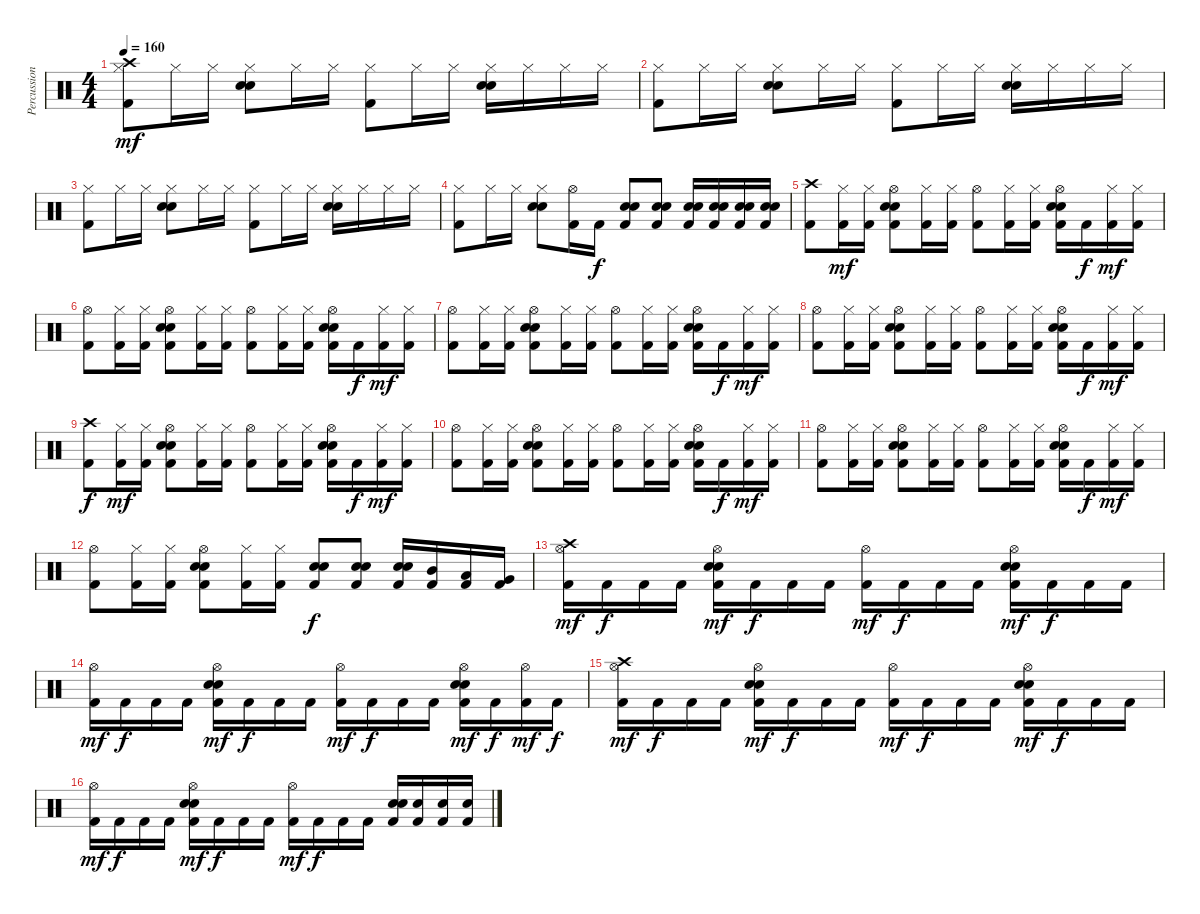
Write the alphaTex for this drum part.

\track ("Percussion" "Percussion") {instrument percussion}
\staff {score}
\articulation defaults
\ts (4 4)
\tempo 160
\clef neutral
\ks c
("Crash high (hit)" "Hi-Hat (closed)" "Kick (hit) 2").8{dy mf} "Hi-Hat (closed)".16 "Hi-Hat (closed)".16 ("Hi-Hat (closed)" "Electric Snare (hit)" "Snare (hit) 2").8 "Hi-Hat (closed)".16 "Hi-Hat (closed)".16 ("Hi-Hat (closed)" "Kick (hit) 2").8 "Hi-Hat (closed)".16 "Hi-Hat (closed)".16 ("Hi-Hat (closed)" "Electric Snare (hit)" "Snare (hit) 2").16 "Hi-Hat (closed)".16 "Hi-Hat (closed)".16 "Hi-Hat (closed)".16 |
("Hi-Hat (closed)" "Kick (hit) 2").8 "Hi-Hat (closed)".16 "Hi-Hat (closed)".16 ("Hi-Hat (closed)" "Electric Snare (hit)" "Snare (hit) 2").8 "Hi-Hat (closed)".16 "Hi-Hat (closed)".16 ("Hi-Hat (closed)" "Kick (hit) 2").8 "Hi-Hat (closed)".16 "Hi-Hat (closed)".16 ("Hi-Hat (closed)" "Electric Snare (hit)" "Snare (hit) 2").16 "Hi-Hat (closed)".16 "Hi-Hat (closed)".16 "Hi-Hat (closed)".16 |
("Hi-Hat (closed)" "Kick (hit) 2").8 "Hi-Hat (closed)".16 "Hi-Hat (closed)".16 ("Hi-Hat (closed)" "Electric Snare (hit)" "Snare (hit) 2").8 "Hi-Hat (closed)".16 "Hi-Hat (closed)".16 ("Hi-Hat (closed)" "Kick (hit) 2").8 "Hi-Hat (closed)".16 "Hi-Hat (closed)".16 ("Hi-Hat (closed)" "Electric Snare (hit)" "Snare (hit) 2").16 "Hi-Hat (closed)".16 "Hi-Hat (closed)".16 "Hi-Hat (closed)".16 |
("Hi-Hat (closed)" "Kick (hit) 2").8 "Hi-Hat (closed)".16 "Hi-Hat (closed)".16 ("Hi-Hat (closed)" "Electric Snare (hit)" "Snare (hit) 2").8 ("Hi-Hat (open)" "Kick (hit) 2").16 "Kick (hit) 2".16{dy f} ("Electric Snare (hit)" "Snare (hit) 2" "Kick (hit) 2").8 ("Electric Snare (hit)" "Snare (hit) 2" "Kick (hit) 2").8 ("Electric Snare (hit)" "Snare (hit) 2" "Kick (hit) 2").16 ("Electric Snare (hit)" "Snare (hit) 2" "Kick (hit) 2").16 ("Electric Snare (hit)" "Snare (hit) 2" "Kick (hit) 2").16 ("Electric Snare (hit)" "Snare (hit) 2" "Kick (hit) 2").16 |
\section ("" "")
("Crash high (hit)" "Kick (hit) 2").8 ("Hi-Hat (closed)" "Kick (hit) 2").16{dy mf} ("Hi-Hat (closed)" "Kick (hit) 2").16 ("Hi-Hat (open)" "Electric Snare (hit)" "Snare (hit) 2" "Kick (hit) 2").8 ("Hi-Hat (closed)" "Kick (hit) 2").16 ("Hi-Hat (closed)" "Kick (hit) 2").16 ("Hi-Hat (open)" "Kick (hit) 2").8 ("Hi-Hat (closed)" "Kick (hit) 2").16 ("Hi-Hat (closed)" "Kick (hit) 2").16 ("Hi-Hat (open)" "Electric Snare (hit)" "Snare (hit) 2" "Kick (hit) 2").16 "Kick (hit) 2".16{dy f} ("Hi-Hat (closed)" "Kick (hit) 2").16{dy mf} ("Hi-Hat (closed)" "Kick (hit) 2").16 |
("Hi-Hat (open)" "Kick (hit) 2").8 ("Hi-Hat (closed)" "Kick (hit) 2").16 ("Hi-Hat (closed)" "Kick (hit) 2").16 ("Hi-Hat (open)" "Electric Snare (hit)" "Snare (hit) 2" "Kick (hit) 2").8 ("Hi-Hat (closed)" "Kick (hit) 2").16 ("Hi-Hat (closed)" "Kick (hit) 2").16 ("Hi-Hat (open)" "Kick (hit) 2").8 ("Hi-Hat (closed)" "Kick (hit) 2").16 ("Hi-Hat (closed)" "Kick (hit) 2").16 ("Hi-Hat (open)" "Electric Snare (hit)" "Snare (hit) 2" "Kick (hit) 2").16 "Kick (hit) 2".16{dy f} ("Hi-Hat (closed)" "Kick (hit) 2").16{dy mf} ("Hi-Hat (closed)" "Kick (hit) 2").16 |
("Hi-Hat (open)" "Kick (hit) 2").8 ("Hi-Hat (closed)" "Kick (hit) 2").16 ("Hi-Hat (closed)" "Kick (hit) 2").16 ("Hi-Hat (open)" "Electric Snare (hit)" "Snare (hit) 2" "Kick (hit) 2").8 ("Hi-Hat (closed)" "Kick (hit) 2").16 ("Hi-Hat (closed)" "Kick (hit) 2").16 ("Hi-Hat (open)" "Kick (hit) 2").8 ("Hi-Hat (closed)" "Kick (hit) 2").16 ("Hi-Hat (closed)" "Kick (hit) 2").16 ("Hi-Hat (open)" "Electric Snare (hit)" "Snare (hit) 2" "Kick (hit) 2").16 "Kick (hit) 2".16{dy f} ("Hi-Hat (closed)" "Kick (hit) 2").16{dy mf} ("Hi-Hat (closed)" "Kick (hit) 2").16 |
("Hi-Hat (open)" "Kick (hit) 2").8 ("Hi-Hat (closed)" "Kick (hit) 2").16 ("Hi-Hat (closed)" "Kick (hit) 2").16 ("Hi-Hat (open)" "Electric Snare (hit)" "Snare (hit) 2" "Kick (hit) 2").8 ("Hi-Hat (closed)" "Kick (hit) 2").16 ("Hi-Hat (closed)" "Kick (hit) 2").16 ("Hi-Hat (open)" "Kick (hit) 2").8 ("Hi-Hat (closed)" "Kick (hit) 2").16 ("Hi-Hat (closed)" "Kick (hit) 2").16 ("Hi-Hat (open)" "Electric Snare (hit)" "Snare (hit) 2" "Kick (hit) 2").16 "Kick (hit) 2".16{dy f} ("Hi-Hat (closed)" "Kick (hit) 2").16{dy mf} ("Hi-Hat (closed)" "Kick (hit) 2").16 |
("Crash high (hit)" "Kick (hit) 2").8{dy f} ("Hi-Hat (closed)" "Kick (hit) 2").16{dy mf} ("Hi-Hat (closed)" "Kick (hit) 2").16 ("Hi-Hat (open)" "Electric Snare (hit)" "Snare (hit) 2" "Kick (hit) 2").8 ("Hi-Hat (closed)" "Kick (hit) 2").16 ("Hi-Hat (closed)" "Kick (hit) 2").16 ("Hi-Hat (open)" "Kick (hit) 2").8 ("Hi-Hat (closed)" "Kick (hit) 2").16 ("Hi-Hat (closed)" "Kick (hit) 2").16 ("Hi-Hat (open)" "Electric Snare (hit)" "Snare (hit) 2" "Kick (hit) 2").16 "Kick (hit) 2".16{dy f} ("Hi-Hat (closed)" "Kick (hit) 2").16{dy mf} ("Hi-Hat (closed)" "Kick (hit) 2").16 |
("Hi-Hat (open)" "Kick (hit) 2").8 ("Hi-Hat (closed)" "Kick (hit) 2").16 ("Hi-Hat (closed)" "Kick (hit) 2").16 ("Hi-Hat (open)" "Electric Snare (hit)" "Snare (hit) 2" "Kick (hit) 2").8 ("Hi-Hat (closed)" "Kick (hit) 2").16 ("Hi-Hat (closed)" "Kick (hit) 2").16 ("Hi-Hat (open)" "Kick (hit) 2").8 ("Hi-Hat (closed)" "Kick (hit) 2").16 ("Hi-Hat (closed)" "Kick (hit) 2").16 ("Hi-Hat (open)" "Electric Snare (hit)" "Snare (hit) 2" "Kick (hit) 2").16 "Kick (hit) 2".16{dy f} ("Hi-Hat (closed)" "Kick (hit) 2").16{dy mf} ("Hi-Hat (closed)" "Kick (hit) 2").16 |
("Hi-Hat (open)" "Kick (hit) 2").8 ("Hi-Hat (closed)" "Kick (hit) 2").16 ("Hi-Hat (closed)" "Kick (hit) 2").16 ("Hi-Hat (open)" "Electric Snare (hit)" "Snare (hit) 2" "Kick (hit) 2").8 ("Hi-Hat (closed)" "Kick (hit) 2").16 ("Hi-Hat (closed)" "Kick (hit) 2").16 ("Hi-Hat (open)" "Kick (hit) 2").8 ("Hi-Hat (closed)" "Kick (hit) 2").16 ("Hi-Hat (closed)" "Kick (hit) 2").16 ("Hi-Hat (open)" "Electric Snare (hit)" "Snare (hit) 2" "Kick (hit) 2").16 "Kick (hit) 2".16{dy f} ("Hi-Hat (closed)" "Kick (hit) 2").16{dy mf} ("Hi-Hat (closed)" "Kick (hit) 2").16 |
("Hi-Hat (open)" "Kick (hit) 2").8 ("Hi-Hat (closed)" "Kick (hit) 2").16 ("Hi-Hat (closed)" "Kick (hit) 2").16 ("Hi-Hat (open)" "Electric Snare (hit)" "Snare (hit) 2" "Kick (hit) 2").8 ("Hi-Hat (closed)" "Kick (hit) 2").16 ("Hi-Hat (closed)" "Kick (hit) 2").16 ("Electric Snare (hit)" "Snare (hit) 2" "Kick (hit) 2").8{dy f} ("Electric Snare (hit)" "Snare (hit) 2" "Kick (hit) 2").8 ("Electric Snare (hit)" "Snare (hit) 2" "Kick (hit) 2").16 ("Mid Tom (hit)" "Kick (hit) 2").16 ("Low Tom (hit)" "Kick (hit) 2").16 ("Very Low Tom (hit)" "Kick (hit) 2").16 |
\section ("" "")
("Crash high (hit)" "Hi-Hat (open)" "Kick (hit) 2").16{dy mf} "Kick (hit) 2".16{dy f} "Kick (hit) 2".16 "Kick (hit) 2".16 ("Hi-Hat (open)" "Electric Snare (hit)" "Snare (hit) 2" "Kick (hit) 2").16{dy mf} "Kick (hit) 2".16{dy f} "Kick (hit) 2".16 "Kick (hit) 2".16 ("Hi-Hat (open)" "Kick (hit) 2").16{dy mf} "Kick (hit) 2".16{dy f} "Kick (hit) 2".16 "Kick (hit) 2".16 ("Hi-Hat (open)" "Electric Snare (hit)" "Snare (hit) 2" "Kick (hit) 2").16{dy mf} "Kick (hit) 2".16{dy f} "Kick (hit) 2".16 "Kick (hit) 2".16 |
("Hi-Hat (open)" "Kick (hit) 2").16{dy mf} "Kick (hit) 2".16{dy f} "Kick (hit) 2".16 "Kick (hit) 2".16 ("Hi-Hat (open)" "Electric Snare (hit)" "Snare (hit) 2" "Kick (hit) 2").16{dy mf} "Kick (hit) 2".16{dy f} "Kick (hit) 2".16 "Kick (hit) 2".16 ("Hi-Hat (open)" "Kick (hit) 2").16{dy mf} "Kick (hit) 2".16{dy f} "Kick (hit) 2".16 "Kick (hit) 2".16 ("Hi-Hat (open)" "Electric Snare (hit)" "Snare (hit) 2" "Kick (hit) 2").16{dy mf} "Kick (hit) 2".16{dy f} ("Hi-Hat (open)" "Kick (hit) 2").16{dy mf} "Kick (hit) 2".16{dy f} |
("Crash high (hit)" "Hi-Hat (open)" "Kick (hit) 2").16{dy mf} "Kick (hit) 2".16{dy f} "Kick (hit) 2".16 "Kick (hit) 2".16 ("Hi-Hat (open)" "Electric Snare (hit)" "Snare (hit) 2" "Kick (hit) 2").16{dy mf} "Kick (hit) 2".16{dy f} "Kick (hit) 2".16 "Kick (hit) 2".16 ("Hi-Hat (open)" "Kick (hit) 2").16{dy mf} "Kick (hit) 2".16{dy f} "Kick (hit) 2".16 "Kick (hit) 2".16 ("Hi-Hat (open)" "Electric Snare (hit)" "Snare (hit) 2" "Kick (hit) 2").16{dy mf} "Kick (hit) 2".16{dy f} "Kick (hit) 2".16 "Kick (hit) 2".16 |
("Hi-Hat (open)" "Kick (hit) 2").16{dy mf} "Kick (hit) 2".16{dy f} "Kick (hit) 2".16 "Kick (hit) 2".16 ("Hi-Hat (open)" "Electric Snare (hit)" "Snare (hit) 2" "Kick (hit) 2").16{dy mf} "Kick (hit) 2".16{dy f} "Kick (hit) 2".16 "Kick (hit) 2".16 ("Hi-Hat (open)" "Kick (hit) 2").16{dy mf} "Kick (hit) 2".16{dy f} "Kick (hit) 2".16 "Kick (hit) 2".16 ("Electric Snare (hit)" "Snare (hit) 2" "Kick (hit) 2").16 ("Snare (hit) 2" "Kick (hit) 2").16 ("Snare (hit) 2" "Kick (hit) 2").16 ("Snare (hit) 2" "Kick (hit) 2").16
